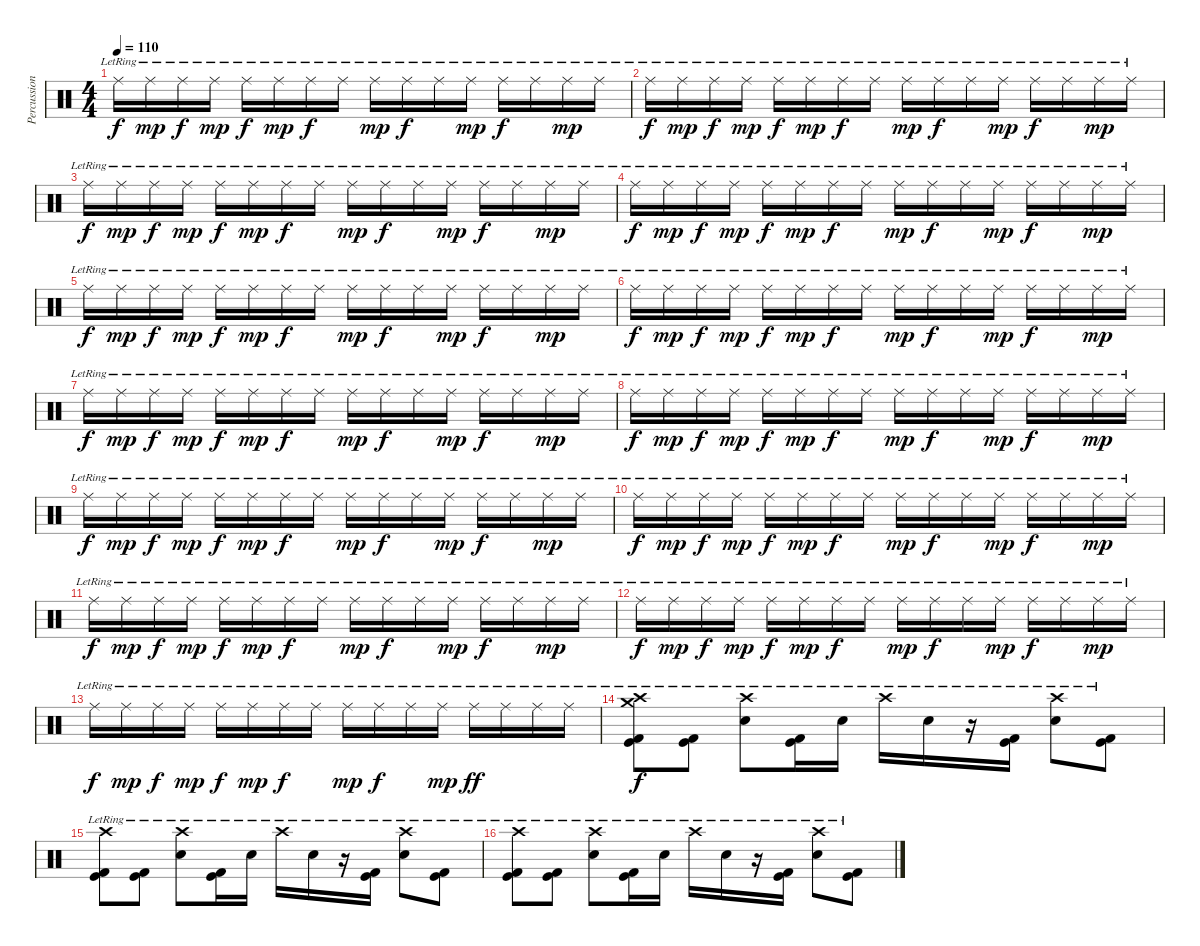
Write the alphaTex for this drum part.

\track ("Percussion" "Percussion") {instrument percussion}
\staff {score}
\articulation defaults
\ts (4 4)
\tempo 110
\clef neutral
\ks c "Ride (middle)"{lr}.16{dy f} "Ride (middle)"{lr}.16{dy mp} "Ride (middle)"{lr}.16{dy f} "Ride (middle)"{lr}.16{dy mp} "Ride (middle)"{lr}.16{dy f} "Ride (middle)"{lr}.16{dy mp} "Ride (middle)"{lr}.16{dy f} "Ride (middle)"{lr}.16 "Ride (middle)"{lr}.16{dy mp} "Ride (middle)"{lr}.16{dy f} "Ride (middle)"{lr}.16 "Ride (middle)"{lr}.16{dy mp} "Ride (middle)"{lr}.16{dy f} "Ride (middle)"{lr}.16 "Ride (middle)"{lr}.16{dy mp} "Ride (middle)"{lr}.16
|
"Ride (middle)"{lr}.16{dy f volume 12} "Ride (middle)"{lr}.16{dy mp} "Ride (middle)"{lr}.16{dy f} "Ride (middle)"{lr}.16{dy mp} "Ride (middle)"{lr}.16{dy f} "Ride (middle)"{lr}.16{dy mp} "Ride (middle)"{lr}.16{dy f} "Ride (middle)"{lr}.16 "Ride (middle)"{lr}.16{dy mp} "Ride (middle)"{lr}.16{dy f} "Ride (middle)"{lr}.16 "Ride (middle)"{lr}.16{dy mp} "Ride (middle)"{lr}.16{dy f} "Ride (middle)"{lr}.16 "Ride (middle)"{lr}.16{dy mp} "Ride (middle)"{lr}.16 |
"Ride (middle)"{lr}.16{dy f} "Ride (middle)"{lr}.16{dy mp} "Ride (middle)"{lr}.16{dy f} "Ride (middle)"{lr}.16{dy mp} "Ride (middle)"{lr}.16{dy f} "Ride (middle)"{lr}.16{dy mp} "Ride (middle)"{lr}.16{dy f} "Ride (middle)"{lr}.16 "Ride (middle)"{lr}.16{dy mp} "Ride (middle)"{lr}.16{dy f} "Ride (middle)"{lr}.16 "Ride (middle)"{lr}.16{dy mp} "Ride (middle)"{lr}.16{dy f} "Ride (middle)"{lr}.16 "Ride (middle)"{lr}.16{dy mp} "Ride (middle)"{lr}.16 |
"Ride (middle)"{lr}.16{dy f} "Ride (middle)"{lr}.16{dy mp} "Ride (middle)"{lr}.16{dy f} "Ride (middle)"{lr}.16{dy mp} "Ride (middle)"{lr}.16{dy f} "Ride (middle)"{lr}.16{dy mp} "Ride (middle)"{lr}.16{dy f} "Ride (middle)"{lr}.16 "Ride (middle)"{lr}.16{dy mp} "Ride (middle)"{lr}.16{dy f} "Ride (middle)"{lr}.16 "Ride (middle)"{lr}.16{dy mp} "Ride (middle)"{lr}.16{dy f} "Ride (middle)"{lr}.16 "Ride (middle)"{lr}.16{dy mp} "Ride (middle)"{lr}.16 |
"Ride (middle)"{lr}.16{dy f} "Ride (middle)"{lr}.16{dy mp} "Ride (middle)"{lr}.16{dy f} "Ride (middle)"{lr}.16{dy mp} "Ride (middle)"{lr}.16{dy f} "Ride (middle)"{lr}.16{dy mp} "Ride (middle)"{lr}.16{dy f} "Ride (middle)"{lr}.16 "Ride (middle)"{lr}.16{dy mp} "Ride (middle)"{lr}.16{dy f} "Ride (middle)"{lr}.16 "Ride (middle)"{lr}.16{dy mp} "Ride (middle)"{lr}.16{dy f} "Ride (middle)"{lr}.16 "Ride (middle)"{lr}.16{dy mp} "Ride (middle)"{lr}.16 |
"Ride (middle)"{lr}.16{dy f} "Ride (middle)"{lr}.16{dy mp} "Ride (middle)"{lr}.16{dy f} "Ride (middle)"{lr}.16{dy mp} "Ride (middle)"{lr}.16{dy f} "Ride (middle)"{lr}.16{dy mp} "Ride (middle)"{lr}.16{dy f} "Ride (middle)"{lr}.16 "Ride (middle)"{lr}.16{dy mp} "Ride (middle)"{lr}.16{dy f} "Ride (middle)"{lr}.16 "Ride (middle)"{lr}.16{dy mp} "Ride (middle)"{lr}.16{dy f} "Ride (middle)"{lr}.16 "Ride (middle)"{lr}.16{dy mp} "Ride (middle)"{lr}.16 |
"Ride (middle)"{lr}.16{dy f} "Ride (middle)"{lr}.16{dy mp} "Ride (middle)"{lr}.16{dy f} "Ride (middle)"{lr}.16{dy mp} "Ride (middle)"{lr}.16{dy f} "Ride (middle)"{lr}.16{dy mp} "Ride (middle)"{lr}.16{dy f} "Ride (middle)"{lr}.16 "Ride (middle)"{lr}.16{dy mp} "Ride (middle)"{lr}.16{dy f} "Ride (middle)"{lr}.16 "Ride (middle)"{lr}.16{dy mp} "Ride (middle)"{lr}.16{dy f} "Ride (middle)"{lr}.16 "Ride (middle)"{lr}.16{dy mp} "Ride (middle)"{lr}.16 |
"Ride (middle)"{lr}.16{dy f} "Ride (middle)"{lr}.16{dy mp} "Ride (middle)"{lr}.16{dy f} "Ride (middle)"{lr}.16{dy mp} "Ride (middle)"{lr}.16{dy f} "Ride (middle)"{lr}.16{dy mp} "Ride (middle)"{lr}.16{dy f} "Ride (middle)"{lr}.16 "Ride (middle)"{lr}.16{dy mp} "Ride (middle)"{lr}.16{dy f} "Ride (middle)"{lr}.16 "Ride (middle)"{lr}.16{dy mp} "Ride (middle)"{lr}.16{dy f} "Ride (middle)"{lr}.16 "Ride (middle)"{lr}.16{dy mp} "Ride (middle)"{lr}.16 |
"Ride (middle)"{lr}.16{dy f} "Ride (middle)"{lr}.16{dy mp} "Ride (middle)"{lr}.16{dy f} "Ride (middle)"{lr}.16{dy mp} "Ride (middle)"{lr}.16{dy f} "Ride (middle)"{lr}.16{dy mp} "Ride (middle)"{lr}.16{dy f} "Ride (middle)"{lr}.16 "Ride (middle)"{lr}.16{dy mp} "Ride (middle)"{lr}.16{dy f} "Ride (middle)"{lr}.16 "Ride (middle)"{lr}.16{dy mp} "Ride (middle)"{lr}.16{dy f} "Ride (middle)"{lr}.16 "Ride (middle)"{lr}.16{dy mp} "Ride (middle)"{lr}.16 |
"Ride (middle)"{lr}.16{dy f} "Ride (middle)"{lr}.16{dy mp} "Ride (middle)"{lr}.16{dy f} "Ride (middle)"{lr}.16{dy mp} "Ride (middle)"{lr}.16{dy f} "Ride (middle)"{lr}.16{dy mp} "Ride (middle)"{lr}.16{dy f} "Ride (middle)"{lr}.16 "Ride (middle)"{lr}.16{dy mp} "Ride (middle)"{lr}.16{dy f} "Ride (middle)"{lr}.16 "Ride (middle)"{lr}.16{dy mp} "Ride (middle)"{lr}.16{dy f} "Ride (middle)"{lr}.16 "Ride (middle)"{lr}.16{dy mp} "Ride (middle)"{lr}.16 |
"Ride (middle)"{lr}.16{dy f} "Ride (middle)"{lr}.16{dy mp} "Ride (middle)"{lr}.16{dy f} "Ride (middle)"{lr}.16{dy mp} "Ride (middle)"{lr}.16{dy f} "Ride (middle)"{lr}.16{dy mp} "Ride (middle)"{lr}.16{dy f} "Ride (middle)"{lr}.16 "Ride (middle)"{lr}.16{dy mp} "Ride (middle)"{lr}.16{dy f} "Ride (middle)"{lr}.16 "Ride (middle)"{lr}.16{dy mp} "Ride (middle)"{lr}.16{dy f} "Ride (middle)"{lr}.16 "Ride (middle)"{lr}.16{dy mp} "Ride (middle)"{lr}.16 |
"Ride (middle)"{lr}.16{dy f} "Ride (middle)"{lr}.16{dy mp} "Ride (middle)"{lr}.16{dy f} "Ride (middle)"{lr}.16{dy mp} "Ride (middle)"{lr}.16{dy f} "Ride (middle)"{lr}.16{dy mp} "Ride (middle)"{lr}.16{dy f} "Ride (middle)"{lr}.16 "Ride (middle)"{lr}.16{dy mp} "Ride (middle)"{lr}.16{dy f} "Ride (middle)"{lr}.16 "Ride (middle)"{lr}.16{dy mp} "Ride (middle)"{lr}.16{dy f} "Ride (middle)"{lr}.16 "Ride (middle)"{lr}.16{dy mp} "Ride (middle)"{lr}.16 |
"Ride (middle)"{lr}.16{dy f} "Ride (middle)"{lr}.16{dy mp} "Ride (middle)"{lr}.16{dy f} "Ride (middle)"{lr}.16{dy mp} "Ride (middle)"{lr}.16{dy f} "Ride (middle)"{lr}.16{dy mp} "Ride (middle)"{lr}.16{dy f} "Ride (middle)"{lr}.16 "Ride (middle)"{lr}.16{dy mp} "Ride (middle)"{lr}.16{dy f} "Ride (middle)"{lr}.16 "Ride (middle)"{lr}.16{dy mp} "Ride (middle)"{lr}.16{dy ff} "Ride (middle)"{lr}.16 "Ride (middle)"{lr}.16 "Ride (middle)"{lr}.16 |
("Crash high (hit)"{lr} "Crash medium (hit)" "Kick (hit) 2"{lr} "Kick (hit)"{lr}).8{dy f} ("Kick (hit) 2"{lr} "Kick (hit)"{lr}).8 ("Crash high (hit)"{lr} "Snare (hit) 2"{lr}).8 ("Kick (hit) 2"{lr} "Kick (hit)"{lr}).16 "Snare (hit) 2"{lr}.16 "Crash high (hit)"{lr}.16 "Snare (hit) 2"{lr}.16 r.16 ("Kick (hit) 2"{lr} "Kick (hit)"{lr}).16 ("Crash high (hit)"{lr} "Snare (hit) 2"{lr}).8 ("Kick (hit) 2"{lr} "Kick (hit)"{lr}).8 |
("Crash high (hit)"{lr} "Kick (hit) 2"{lr} "Kick (hit)"{lr}).8 ("Kick (hit) 2"{lr} "Kick (hit)"{lr}).8 ("Crash high (hit)"{lr} "Snare (hit) 2"{lr}).8 ("Kick (hit) 2"{lr} "Kick (hit)"{lr}).16 "Snare (hit) 2"{lr}.16 "Crash high (hit)"{lr}.16 "Snare (hit) 2"{lr}.16 r.16 ("Kick (hit) 2"{lr} "Kick (hit)"{lr}).16 ("Crash high (hit)"{lr} "Snare (hit) 2"{lr}).8 ("Kick (hit) 2"{lr} "Kick (hit)"{lr}).8 |
("Crash high (hit)"{lr} "Kick (hit) 2"{lr} "Kick (hit)"{lr}).8 ("Kick (hit) 2"{lr} "Kick (hit)"{lr}).8 ("Crash high (hit)"{lr} "Snare (hit) 2"{lr}).8 ("Kick (hit) 2"{lr} "Kick (hit)"{lr}).16 "Snare (hit) 2"{lr}.16 "Crash high (hit)"{lr}.16 "Snare (hit) 2"{lr}.16 r.16 ("Kick (hit) 2"{lr} "Kick (hit)"{lr}).16 ("Crash high (hit)"{lr} "Snare (hit) 2"{lr}).8 ("Kick (hit) 2"{lr} "Kick (hit)"{lr}).8
